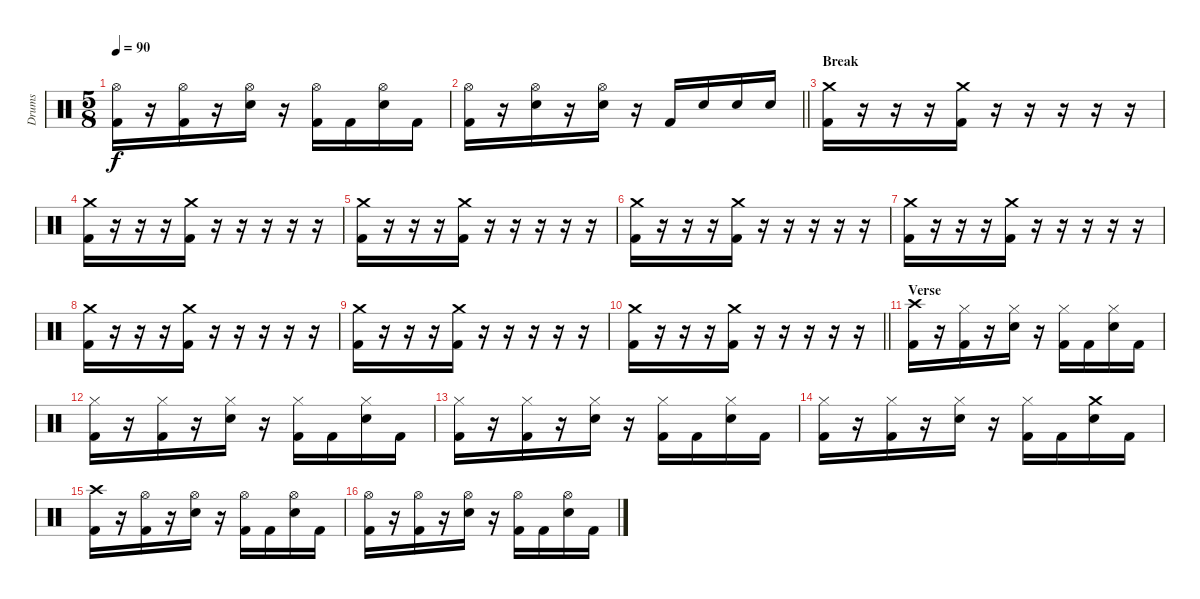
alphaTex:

\track ("Drums" "Drums") {instrument percussion}
\staff {score}
\articulation defaults
\ts (5 8)
\tempo 90
\clef neutral
\ks c
("Hi-Hat (open)" "Kick (hit) 2").16{dy f} r.16 ("Hi-Hat (open)" "Kick (hit) 2").16 r.16 ("Hi-Hat (open)" "Electric Snare (hit)").16 r.16 ("Hi-Hat (open)" "Kick (hit) 2").16 "Kick (hit) 2".16 ("Hi-Hat (open)" "Electric Snare (hit)").16 "Kick (hit) 2".16 |
\barLineRight lightlight
("Hi-Hat (open)" "Kick (hit) 2").16 r.16 ("Hi-Hat (open)" "Electric Snare (hit)").16 r.16 ("Hi-Hat (open)" "Electric Snare (hit)").16 r.16 "Kick (hit) 2".16 "Electric Snare (hit)".16 "Electric Snare (hit)".16 "Electric Snare (hit)".16 |
\section ("" "Break")
("Crash medium (hit)" "Kick (hit) 2").16 r.16 r.16 r.16 ("Crash medium (hit)" "Kick (hit) 2").16 r.16 r.16 r.16 r.16 r.16 |
("Crash medium (hit)" "Kick (hit) 2").16 r.16 r.16 r.16 ("Crash medium (hit)" "Kick (hit) 2").16 r.16 r.16 r.16 r.16 r.16 |
("Crash medium (hit)" "Kick (hit) 2").16 r.16 r.16 r.16 ("Crash medium (hit)" "Kick (hit) 2").16 r.16 r.16 r.16 r.16 r.16 |
("Crash medium (hit)" "Kick (hit) 2").16 r.16 r.16 r.16 ("Crash medium (hit)" "Kick (hit) 2").16 r.16 r.16 r.16 r.16 r.16 |
("Crash medium (hit)" "Kick (hit) 2").16 r.16 r.16 r.16 ("Crash medium (hit)" "Kick (hit) 2").16 r.16 r.16 r.16 r.16 r.16 |
("Crash medium (hit)" "Kick (hit) 2").16 r.16 r.16 r.16 ("Crash medium (hit)" "Kick (hit) 2").16 r.16 r.16 r.16 r.16 r.16 |
("Crash medium (hit)" "Kick (hit) 2").16 r.16 r.16 r.16 ("Crash medium (hit)" "Kick (hit) 2").16 r.16 r.16 r.16 r.16 r.16 |
\barLineRight lightlight
("Crash medium (hit)" "Kick (hit) 2").16 r.16 r.16 r.16 ("Crash medium (hit)" "Kick (hit) 2").16 r.16 r.16 r.16 r.16 r.16 |
\section ("" "Verse")
("Crash high (hit)" "Kick (hit) 2").16 r.16 ("Hi-Hat (closed)" "Kick (hit) 2").16 r.16 ("Hi-Hat (closed)" "Electric Snare (hit)").16 r.16 ("Hi-Hat (closed)" "Kick (hit) 2").16 "Kick (hit) 2".16 ("Hi-Hat (closed)" "Electric Snare (hit)").16 "Kick (hit) 2".16 |
("Hi-Hat (closed)" "Kick (hit) 2").16 r.16 ("Hi-Hat (closed)" "Kick (hit) 2").16 r.16 ("Hi-Hat (closed)" "Electric Snare (hit)").16 r.16 ("Hi-Hat (closed)" "Kick (hit) 2").16 "Kick (hit) 2".16 ("Hi-Hat (closed)" "Electric Snare (hit)").16 "Kick (hit) 2".16 |
("Hi-Hat (closed)" "Kick (hit) 2").16 r.16 ("Hi-Hat (closed)" "Kick (hit) 2").16 r.16 ("Hi-Hat (closed)" "Electric Snare (hit)").16 r.16 ("Hi-Hat (closed)" "Kick (hit) 2").16 "Kick (hit) 2".16 ("Hi-Hat (closed)" "Electric Snare (hit)").16 "Kick (hit) 2".16 |
("Hi-Hat (closed)" "Kick (hit) 2").16 r.16 ("Hi-Hat (closed)" "Kick (hit) 2").16 r.16 ("Hi-Hat (closed)" "Electric Snare (hit)").16 r.16 ("Hi-Hat (closed)" "Kick (hit) 2").16 "Kick (hit) 2".16 ("Crash medium (hit)" "Electric Snare (hit)").16 "Kick (hit) 2".16 |
("Crash high (hit)" "Kick (hit) 2").16 r.16 ("Hi-Hat (open)" "Kick (hit) 2").16 r.16 ("Hi-Hat (open)" "Electric Snare (hit)").16 r.16 ("Hi-Hat (open)" "Kick (hit) 2").16 "Kick (hit) 2".16 ("Hi-Hat (open)" "Electric Snare (hit)").16 "Kick (hit) 2".16 |
("Hi-Hat (open)" "Kick (hit) 2").16 r.16 ("Hi-Hat (open)" "Kick (hit) 2").16 r.16 ("Hi-Hat (open)" "Electric Snare (hit)").16 r.16 ("Hi-Hat (open)" "Kick (hit) 2").16 "Kick (hit) 2".16 ("Hi-Hat (open)" "Electric Snare (hit)").16 "Kick (hit) 2".16
